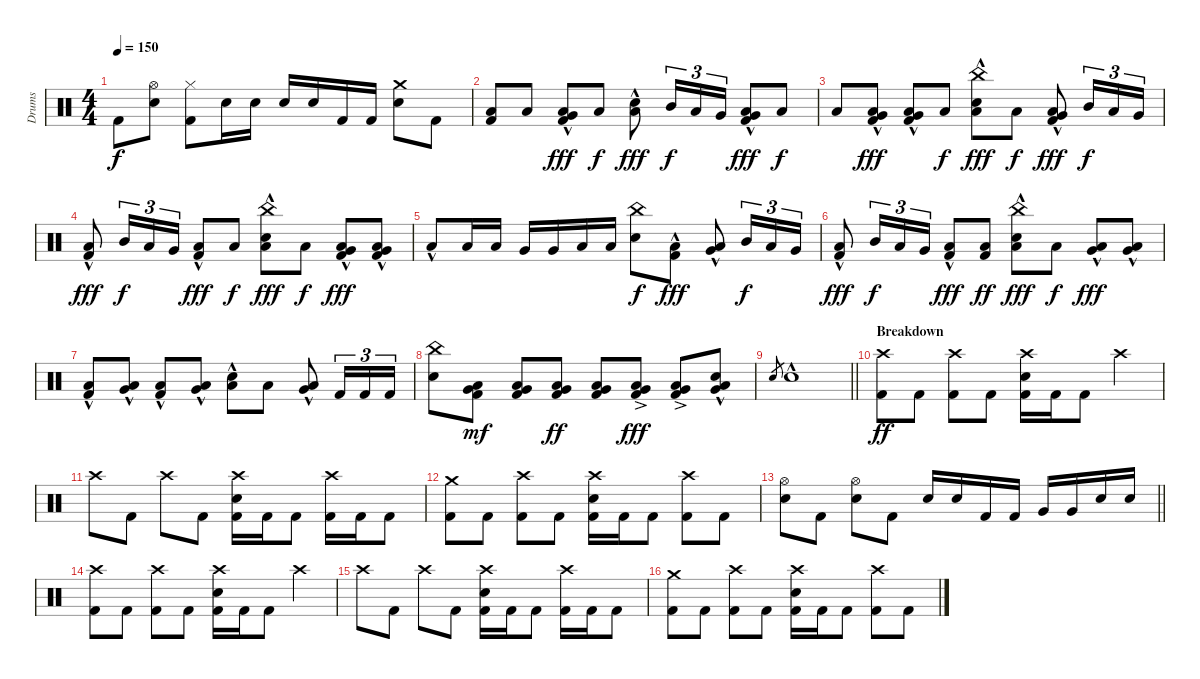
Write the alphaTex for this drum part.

\track ("Drums" "Drums") {instrument percussion}
\staff {score}
\articulation defaults
\ts (4 4)
\tempo 150
\clef neutral
\ks c "Kick (hit) 2".8{dy f}
("Hi-Hat (open)" "Electric Snare (hit)").8 ("Hi-Hat (closed)" "Kick (hit) 2").8 "Electric Snare (hit)".16 "Electric Snare (hit)".16 "Electric Snare (hit)".16 "Electric Snare (hit)".16 "Kick (hit) 2".16 "Kick (hit) 2".16 ("Crash medium (hit)" "Electric Snare (hit)").8 "Kick (hit) 2".8 |
("Low Floor Tom (hit)" "Kick (hit) 2").8 "Low Floor Tom (hit)".8 ("Very Low Tom (hit)"{hac} "Low Floor Tom (hit)"{hac} "Kick (hit) 2").8{dy fff} "Low Floor Tom (hit)".8{dy f} ("Electric Snare (hit)"{hac} "Low Floor Tom (hit)"{hac}).8{dy fff} "Mid Tom (hit)".16{tu (3 2) dy f} "Low Tom (hit)".16{tu (3 2)} "Very Low Tom (hit)".16{tu (3 2)} ("Very Low Tom (hit)"{hac} "Low Floor Tom (hit)"{hac} "Kick (hit) 2").8{dy fff} "Low Floor Tom (hit)".8{dy f} |
"Low Floor Tom (hit)".8 ("Very Low Tom (hit)"{hac} "Low Floor Tom (hit)"{hac} "Kick (hit) 2").8{dy fff} ("Very Low Tom (hit)"{hac} "Low Floor Tom (hit)"{hac} "Kick (hit) 2").8 "Low Floor Tom (hit)".8{dy f} ("China (hit)" "Electric Snare (hit)"{hac} "Low Floor Tom (hit)"{hac}).8{dy fff} "Low Floor Tom (hit)".8{dy f} ("Very Low Tom (hit)"{hac} "Low Floor Tom (hit)"{hac} "Kick (hit) 2"{hac}).8{dy fff} "Mid Tom (hit)".16{tu (3 2) dy f} "Low Tom (hit)".16{tu (3 2)} "Very Low Tom (hit)".16{tu (3 2)} |
("Low Floor Tom (hit)"{hac} "Kick (hit) 2"{hac}).8{dy fff} "Mid Tom (hit)".16{tu (3 2) dy f} "Low Tom (hit)".16{tu (3 2)} "Very Low Tom (hit)".16{tu (3 2)} ("Low Floor Tom (hit)"{hac} "Kick (hit) 2"{hac}).8{dy fff} "Low Floor Tom (hit)".8{dy f} ("China (hit)" "Electric Snare (hit)"{hac} "Low Floor Tom (hit)"{hac}).8{dy fff} "Low Floor Tom (hit)".8{dy f} ("Very Low Tom (hit)"{hac} "Low Floor Tom (hit)"{hac} "Kick (hit) 2"{hac}).8{dy fff} ("Very Low Tom (hit)"{hac} "Low Floor Tom (hit)"{hac} "Kick (hit) 2"{hac}).8 |
"Low Floor Tom (hit)"{hac}.8 "Low Tom (hit)".16 "Low Tom (hit)".16 "Very Low Tom (hit)".16 "Very Low Tom (hit)".16 "Low Floor Tom (hit)".16 "Low Floor Tom (hit)".16 ("China (hit)" "Electric Snare (hit)").8{dy f} ("Low Floor Tom (hit)" "Kick (hit) 2"{hac}).8{dy fff} ("Very Low Tom (hit)"{hac} "Low Floor Tom (hit)"{hac}).8 "Mid Tom (hit)".16{tu (3 2) dy f} "Low Tom (hit)".16{tu (3 2)} "Very Low Tom (hit)".16{tu (3 2)} |
("Low Floor Tom (hit)"{hac} "Kick (hit) 2"{hac}).8{dy fff} "Mid Tom (hit)".16{tu (3 2) dy f} "Low Tom (hit)".16{tu (3 2)} "Very Low Tom (hit)".16{tu (3 2)} ("Low Floor Tom (hit)"{hac} "Kick (hit) 2"{hac}).8{dy fff} ("Low Floor Tom (hit)" "Kick (hit) 2").8{dy ff} ("China (hit)" "Electric Snare (hit)"{hac} "Low Floor Tom (hit)"{hac}).8{dy fff} "Low Floor Tom (hit)".8{dy f} ("Very Low Tom (hit)"{hac} "Low Floor Tom (hit)"{hac}).8{dy fff} ("Very Low Tom (hit)"{hac} "Low Floor Tom (hit)"{hac}).8 |
("Low Floor Tom (hit)" "Kick (hit) 2"{hac}).8 ("Very Low Tom (hit)"{hac} "Low Floor Tom (hit)"{hac}).8 ("Low Floor Tom (hit)" "Kick (hit) 2"{hac}).8 ("Very Low Tom (hit)"{hac} "Low Floor Tom (hit)"{hac}).8 ("Electric Snare (hit)"{hac} "Low Floor Tom (hit)"{hac}).8 "Low Floor Tom (hit)".8 ("Very Low Tom (hit)"{hac} "Low Floor Tom (hit)"{hac}).8 "Kick (hit) 2".16{tu (3 2)} "Kick (hit) 2".16{tu (3 2)} "Kick (hit) 2".16{tu (3 2)} |
("China (hit)" "Electric Snare (hit)").8 ("Very Low Tom (hit)" "Low Floor Tom (hit)" "Kick (hit) 2").8{dy mf} ("Very Low Tom (hit)" "Low Floor Tom (hit)" "Kick (hit) 2").8 ("Very Low Tom (hit)" "Low Floor Tom (hit)" "Kick (hit) 2").8{dy ff} ("Very Low Tom (hit)" "Low Floor Tom (hit)" "Kick (hit) 2").8 ("Very Low Tom (hit)"{ac} "Low Floor Tom (hit)"{ac} "Kick (hit) 2"{ac}).8{dy fff} ("Very Low Tom (hit)"{ac} "Low Floor Tom (hit)"{ac} "Kick (hit) 2"{ac}).8 ("Very Low Tom (hit)"{hac} "Low Floor Tom (hit)"{hac} "Snare (hit)"{hac}).8 |
\barLineRight lightlight "Electric Snare (hit)".8{gr} "Electric Snare (hit)"{hac}.1
|
\section ("" "Breakdown")
("Crash high (hit)" "Kick (hit) 2").8{dy ff} "Kick (hit) 2".8 ("Crash high (hit)" "Kick (hit) 2").8 "Kick (hit) 2".8 ("Crash high (hit)" "Electric Snare (hit)" "Kick (hit) 2").16 "Kick (hit) 2".16 "Kick (hit) 2".8 "Crash high (hit)".4 |
"Crash high (hit)".8 "Kick (hit) 2".8 "Crash high (hit)".8 "Kick (hit) 2".8 ("Crash high (hit)" "Electric Snare (hit)" "Kick (hit) 2").16 "Kick (hit) 2".16 "Kick (hit) 2".8 ("Crash high (hit)" "Kick (hit) 2").16 "Kick (hit) 2".16 "Kick (hit) 2".8 |
("Crash medium (hit)" "Kick (hit) 2").8 "Kick (hit) 2".8 ("Crash high (hit)" "Kick (hit) 2").8 "Kick (hit) 2".8 ("Crash high (hit)" "Electric Snare (hit)" "Kick (hit) 2").16 "Kick (hit) 2".16 "Kick (hit) 2".8 ("Crash high (hit)" "Kick (hit) 2").8 "Kick (hit) 2".8 |
\barLineRight lightlight
("Hi-Hat (open)" "Electric Snare (hit)").8 "Kick (hit) 2".8 ("Hi-Hat (open)" "Electric Snare (hit)").8 "Kick (hit) 2".8 "Electric Snare (hit)".16 "Electric Snare (hit)".16 "Kick (hit) 2".16 "Kick (hit) 2".16 "Very Low Tom (hit)".16 "Very Low Tom (hit)".16 "Electric Snare (hit)".16 "Electric Snare (hit)".16 |
("Crash high (hit)" "Kick (hit) 2").8 "Kick (hit) 2".8 ("Crash high (hit)" "Kick (hit) 2").8 "Kick (hit) 2".8 ("Crash high (hit)" "Electric Snare (hit)" "Kick (hit) 2").16 "Kick (hit) 2".16 "Kick (hit) 2".8 "Crash high (hit)".4 |
"Crash high (hit)".8 "Kick (hit) 2".8 "Crash high (hit)".8 "Kick (hit) 2".8 ("Crash high (hit)" "Electric Snare (hit)" "Kick (hit) 2").16 "Kick (hit) 2".16 "Kick (hit) 2".8 ("Crash high (hit)" "Kick (hit) 2").16 "Kick (hit) 2".16 "Kick (hit) 2".8 |
("Crash medium (hit)" "Kick (hit) 2").8 "Kick (hit) 2".8 ("Crash high (hit)" "Kick (hit) 2").8 "Kick (hit) 2".8 ("Crash high (hit)" "Electric Snare (hit)" "Kick (hit) 2").16 "Kick (hit) 2".16 "Kick (hit) 2".8 ("Crash high (hit)" "Kick (hit) 2").8 "Kick (hit) 2".8
